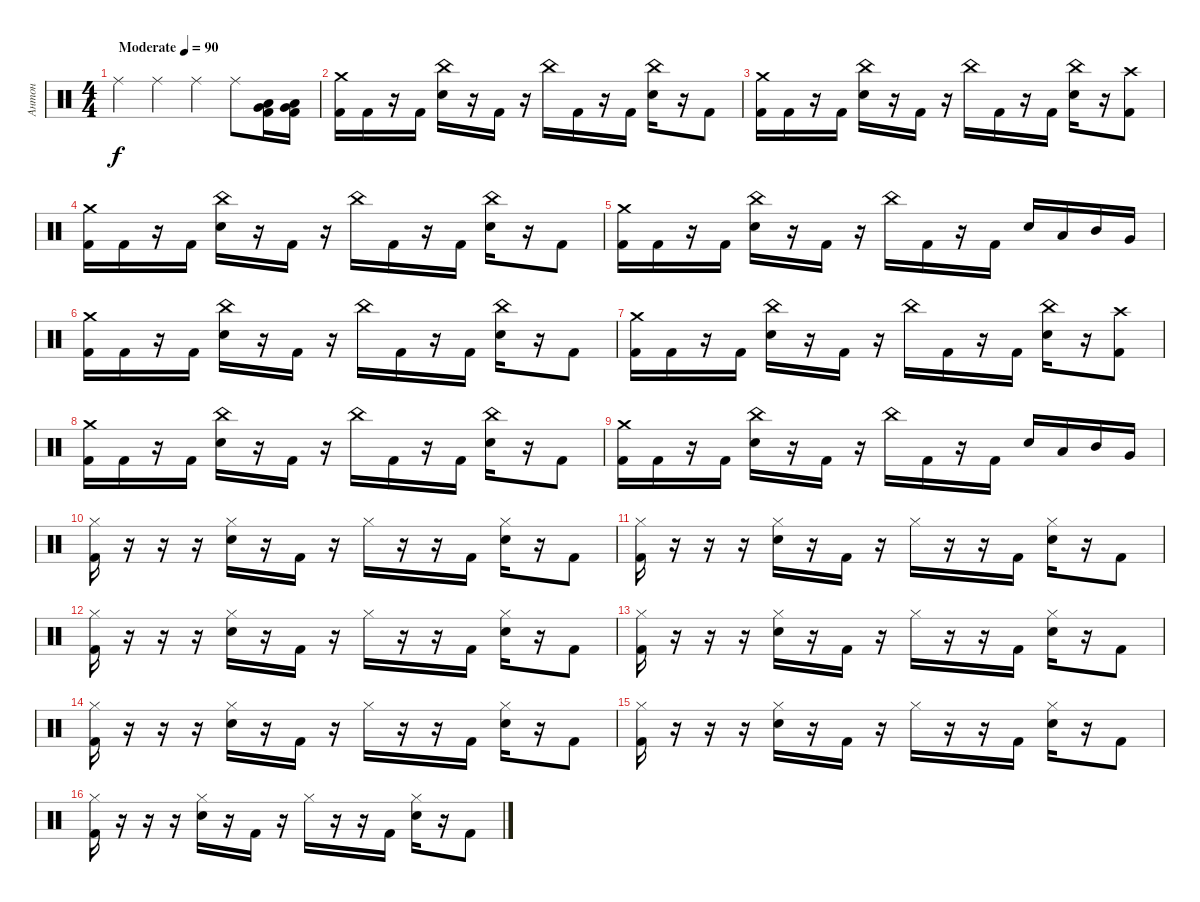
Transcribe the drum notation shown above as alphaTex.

\track ("Антон" "Антон") {instrument percussion}
\staff {score}
\articulation defaults
\ts (4 4)
\tempo (90 "Moderate")
\clef neutral
\ks c "Ride (middle)".4{dy f} "Ride (middle)".4 "Ride (middle)".4 "Ride (middle)".8
("Very Low Tom (hit)" "Low Tom (hit)" "Kick (hit) 2").16 ("Very Low Tom (hit)" "Low Tom (hit)" "Kick (hit) 2").16 |
("Crash medium (hit)" "Kick (hit) 2").16 "Kick (hit) 2".16 r.16 "Kick (hit) 2".16 ("China (hit)" "Electric Snare (hit)").16 r.16 "Kick (hit) 2".16 r.16 "China (hit)".16 "Kick (hit) 2".16 r.16 "Kick (hit) 2".16 ("China (hit)" "Electric Snare (hit)").16 r.16 "Kick (hit) 2".8 |
("Crash medium (hit)" "Kick (hit) 2").16 "Kick (hit) 2".16 r.16 "Kick (hit) 2".16 ("China (hit)" "Electric Snare (hit)").16 r.16 "Kick (hit) 2".16 r.16 "China (hit)".16 "Kick (hit) 2".16 r.16 "Kick (hit) 2".16 ("China (hit)" "Electric Snare (hit)").16 r.16 ("Crash high (hit)" "Kick (hit) 2").8 |
("Crash medium (hit)" "Kick (hit) 2").16 "Kick (hit) 2".16 r.16 "Kick (hit) 2".16 ("China (hit)" "Electric Snare (hit)").16 r.16 "Kick (hit) 2".16 r.16 "China (hit)".16 "Kick (hit) 2".16 r.16 "Kick (hit) 2".16 ("China (hit)" "Electric Snare (hit)").16 r.16 "Kick (hit) 2".8 |
("Crash medium (hit)" "Kick (hit) 2").16 "Kick (hit) 2".16 r.16 "Kick (hit) 2".16 ("China (hit)" "Electric Snare (hit)").16 r.16 "Kick (hit) 2".16 r.16 "China (hit)".16 "Kick (hit) 2".16 r.16 "Kick (hit) 2".16 "Electric Snare (hit)".16 "Low Tom (hit)".16 "Mid Tom (hit)".16 "Very Low Tom (hit)".16 |
("Crash medium (hit)" "Kick (hit) 2").16 "Kick (hit) 2".16 r.16 "Kick (hit) 2".16 ("China (hit)" "Electric Snare (hit)").16 r.16 "Kick (hit) 2".16 r.16 "China (hit)".16 "Kick (hit) 2".16 r.16 "Kick (hit) 2".16 ("China (hit)" "Electric Snare (hit)").16 r.16 "Kick (hit) 2".8 |
("Crash medium (hit)" "Kick (hit) 2").16 "Kick (hit) 2".16 r.16 "Kick (hit) 2".16 ("China (hit)" "Electric Snare (hit)").16 r.16 "Kick (hit) 2".16 r.16 "China (hit)".16 "Kick (hit) 2".16 r.16 "Kick (hit) 2".16 ("China (hit)" "Electric Snare (hit)").16 r.16 ("Crash high (hit)" "Kick (hit) 2").8 |
("Crash medium (hit)" "Kick (hit) 2").16 "Kick (hit) 2".16 r.16 "Kick (hit) 2".16 ("China (hit)" "Electric Snare (hit)").16 r.16 "Kick (hit) 2".16 r.16 "China (hit)".16 "Kick (hit) 2".16 r.16 "Kick (hit) 2".16 ("China (hit)" "Electric Snare (hit)").16 r.16 "Kick (hit) 2".8 |
("Crash medium (hit)" "Kick (hit) 2").16 "Kick (hit) 2".16 r.16 "Kick (hit) 2".16 ("China (hit)" "Electric Snare (hit)").16 r.16 "Kick (hit) 2".16 r.16 "China (hit)".16 "Kick (hit) 2".16 r.16 "Kick (hit) 2".16 "Electric Snare (hit)".16 "Low Tom (hit)".16 "Mid Tom (hit)".16 "Very Low Tom (hit)".16 |
("Hi-Hat (closed)" "Kick (hit) 2").16 r.16 r.16 r.16 ("Hi-Hat (closed)" "Electric Snare (hit)").16 r.16 "Kick (hit) 2".16 r.16 "Hi-Hat (closed)".16 r.16 r.16 "Kick (hit) 2".16 ("Hi-Hat (closed)" "Electric Snare (hit)").16 r.16 "Kick (hit) 2".8 |
("Hi-Hat (closed)" "Kick (hit) 2").16 r.16 r.16 r.16 ("Hi-Hat (closed)" "Electric Snare (hit)").16 r.16 "Kick (hit) 2".16 r.16 "Hi-Hat (closed)".16 r.16 r.16 "Kick (hit) 2".16 ("Hi-Hat (closed)" "Electric Snare (hit)").16 r.16 "Kick (hit) 2".8 |
("Hi-Hat (closed)" "Kick (hit) 2").16 r.16 r.16 r.16 ("Hi-Hat (closed)" "Electric Snare (hit)").16 r.16 "Kick (hit) 2".16 r.16 "Hi-Hat (closed)".16 r.16 r.16 "Kick (hit) 2".16 ("Hi-Hat (closed)" "Electric Snare (hit)").16 r.16 "Kick (hit) 2".8 |
("Hi-Hat (closed)" "Kick (hit) 2").16 r.16 r.16 r.16 ("Hi-Hat (closed)" "Electric Snare (hit)").16 r.16 "Kick (hit) 2".16 r.16 "Hi-Hat (closed)".16 r.16 r.16 "Kick (hit) 2".16 ("Hi-Hat (closed)" "Electric Snare (hit)").16 r.16 "Kick (hit) 2".8 |
("Hi-Hat (closed)" "Kick (hit) 2").16 r.16 r.16 r.16 ("Hi-Hat (closed)" "Electric Snare (hit)").16 r.16 "Kick (hit) 2".16 r.16 "Hi-Hat (closed)".16 r.16 r.16 "Kick (hit) 2".16 ("Hi-Hat (closed)" "Electric Snare (hit)").16 r.16 "Kick (hit) 2".8 |
("Hi-Hat (closed)" "Kick (hit) 2").16 r.16 r.16 r.16 ("Hi-Hat (closed)" "Electric Snare (hit)").16 r.16 "Kick (hit) 2".16 r.16 "Hi-Hat (closed)".16 r.16 r.16 "Kick (hit) 2".16 ("Hi-Hat (closed)" "Electric Snare (hit)").16 r.16 "Kick (hit) 2".8 |
("Hi-Hat (closed)" "Kick (hit) 2").16 r.16 r.16 r.16 ("Hi-Hat (closed)" "Electric Snare (hit)").16 r.16 "Kick (hit) 2".16 r.16 "Hi-Hat (closed)".16 r.16 r.16 "Kick (hit) 2".16 ("Hi-Hat (closed)" "Electric Snare (hit)").16 r.16 "Kick (hit) 2".8
